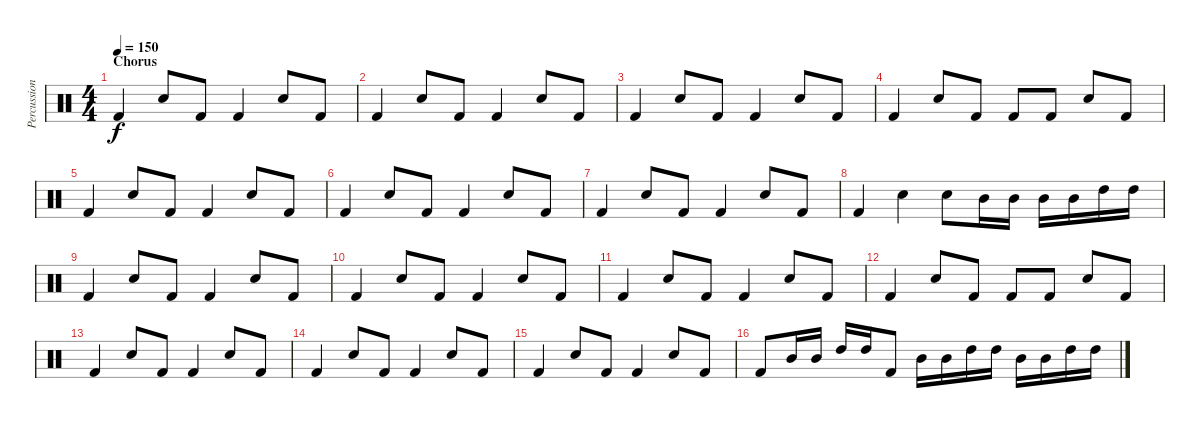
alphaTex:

\track ("Percussion" "Percussion") {instrument percussion}
\staff {score}
\articulation defaults
\ts (4 4)
\section ("" "Chorus")
\tempo 150
\clef neutral
\ks c "Kick (hit) 2".4{dy f} "Snare (hit) 2".8 "Kick (hit) 2".8 "Kick (hit) 2".4 "Snare (hit) 2".8 "Kick (hit) 2".8
|
"Kick (hit) 2".4 "Snare (hit) 2".8 "Kick (hit) 2".8 "Kick (hit) 2".4 "Snare (hit) 2".8 "Kick (hit) 2".8 |
"Kick (hit) 2".4 "Snare (hit) 2".8 "Kick (hit) 2".8 "Kick (hit) 2".4 "Snare (hit) 2".8 "Kick (hit) 2".8 |
"Kick (hit) 2".4 "Snare (hit) 2".8 "Kick (hit) 2".8 "Kick (hit) 2".8 "Kick (hit) 2".8 "Snare (hit) 2".8 "Kick (hit) 2".8 |
"Kick (hit) 2".4 "Snare (hit) 2".8 "Kick (hit) 2".8 "Kick (hit) 2".4 "Snare (hit) 2".8 "Kick (hit) 2".8 |
"Kick (hit) 2".4 "Snare (hit) 2".8 "Kick (hit) 2".8 "Kick (hit) 2".4 "Snare (hit) 2".8 "Kick (hit) 2".8 |
"Kick (hit) 2".4 "Snare (hit) 2".8 "Kick (hit) 2".8 "Kick (hit) 2".4 "Snare (hit) 2".8 "Kick (hit) 2".8 |
"Kick (hit) 2".4 "Snare (hit) 2".4 "Snare (hit) 2".8 "Mid Tom (hit)".16 "Mid Tom (hit)".16 "Mid Tom (hit)".16 "Mid Tom (hit)".16 "High Tom (hit)".16 "High Tom (hit)".16 |
"Kick (hit) 2".4 "Snare (hit) 2".8 "Kick (hit) 2".8 "Kick (hit) 2".4 "Snare (hit) 2".8 "Kick (hit) 2".8 |
"Kick (hit) 2".4 "Snare (hit) 2".8 "Kick (hit) 2".8 "Kick (hit) 2".4 "Snare (hit) 2".8 "Kick (hit) 2".8 |
"Kick (hit) 2".4 "Snare (hit) 2".8 "Kick (hit) 2".8 "Kick (hit) 2".4 "Snare (hit) 2".8 "Kick (hit) 2".8 |
"Kick (hit) 2".4 "Snare (hit) 2".8 "Kick (hit) 2".8 "Kick (hit) 2".8 "Kick (hit) 2".8 "Snare (hit) 2".8 "Kick (hit) 2".8 |
"Kick (hit) 2".4 "Snare (hit) 2".8 "Kick (hit) 2".8 "Kick (hit) 2".4 "Snare (hit) 2".8 "Kick (hit) 2".8 |
"Kick (hit) 2".4 "Snare (hit) 2".8 "Kick (hit) 2".8 "Kick (hit) 2".4 "Snare (hit) 2".8 "Kick (hit) 2".8 |
"Kick (hit) 2".4 "Snare (hit) 2".8 "Kick (hit) 2".8 "Kick (hit) 2".4 "Snare (hit) 2".8 "Kick (hit) 2".8 |
"Kick (hit) 2".8 "Mid Tom (hit)".16 "Mid Tom (hit)".16 "High Tom (hit)".16 "High Tom (hit)".16 "Kick (hit) 2".8 "Mid Tom (hit)".16 "Mid Tom (hit)".16 "High Tom (hit)".16 "High Tom (hit)".16 "Mid Tom (hit)".16 "Mid Tom (hit)".16 "High Tom (hit)".16 "High Tom (hit)".16
